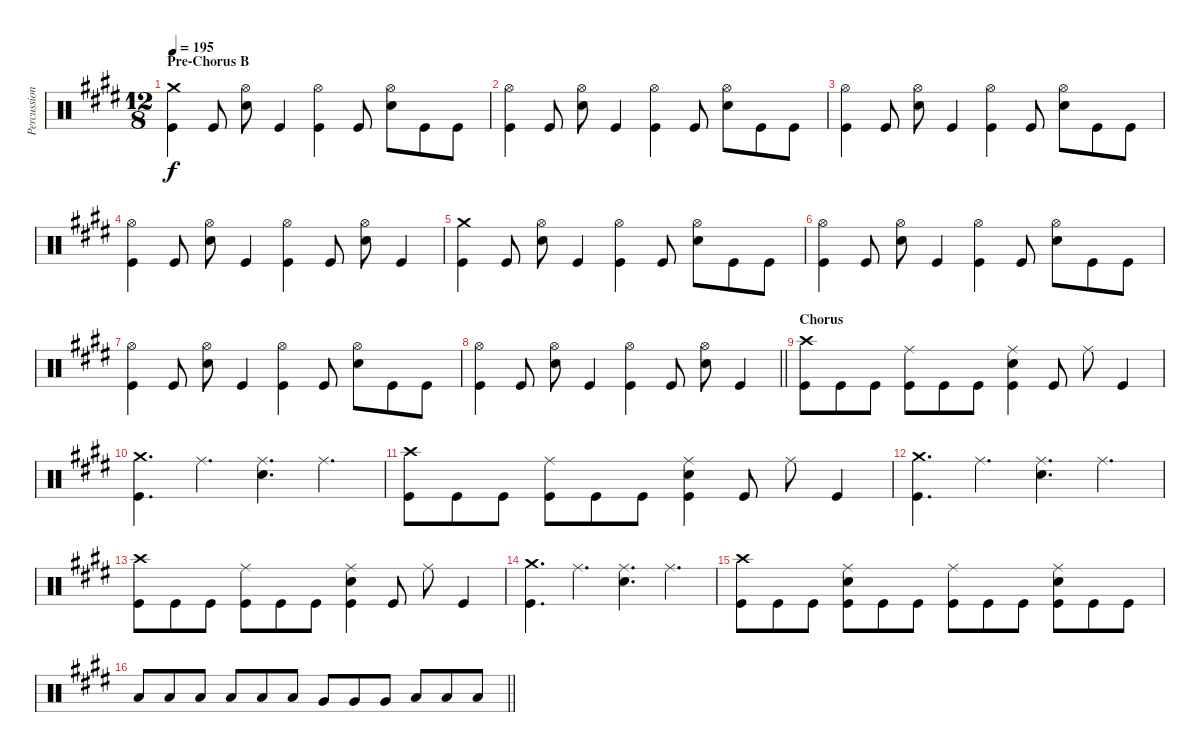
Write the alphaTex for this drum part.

\track ("Percussion" "Percussion") {instrument percussion}
\staff {score}
\articulation defaults
\ts (12 8)
\section ("" "Pre-Chorus B")
\tempo 195
\clef neutral
\ks e
("Crash medium (hit)" "Kick (hit)").4{dy f} "Kick (hit)".8 ("Hi-Hat (open)" "Electric Snare (hit)").8 "Kick (hit)".4 ("Hi-Hat (open)" "Kick (hit)").4 "Kick (hit)".8 ("Hi-Hat (open)" "Electric Snare (hit)").8 "Kick (hit)".8 "Kick (hit)".8 |
("Hi-Hat (open)" "Kick (hit)").4 "Kick (hit)".8 ("Hi-Hat (open)" "Electric Snare (hit)").8 "Kick (hit)".4 ("Hi-Hat (open)" "Kick (hit)").4 "Kick (hit)".8 ("Hi-Hat (open)" "Electric Snare (hit)").8 "Kick (hit)".8 "Kick (hit)".8 |
("Hi-Hat (open)" "Kick (hit)").4 "Kick (hit)".8 ("Hi-Hat (open)" "Electric Snare (hit)").8 "Kick (hit)".4 ("Hi-Hat (open)" "Kick (hit)").4 "Kick (hit)".8 ("Hi-Hat (open)" "Electric Snare (hit)").8 "Kick (hit)".8 "Kick (hit)".8 |
("Hi-Hat (open)" "Kick (hit)").4 "Kick (hit)".8 ("Hi-Hat (open)" "Electric Snare (hit)").8 "Kick (hit)".4 ("Hi-Hat (open)" "Kick (hit)").4 "Kick (hit)".8 ("Hi-Hat (open)" "Electric Snare (hit)").8 "Kick (hit)".4 |
("Crash medium (hit)" "Kick (hit)").4 "Kick (hit)".8 ("Hi-Hat (open)" "Electric Snare (hit)").8 "Kick (hit)".4 ("Hi-Hat (open)" "Kick (hit)").4 "Kick (hit)".8 ("Hi-Hat (open)" "Electric Snare (hit)").8 "Kick (hit)".8 "Kick (hit)".8 |
("Hi-Hat (open)" "Kick (hit)").4 "Kick (hit)".8 ("Hi-Hat (open)" "Electric Snare (hit)").8 "Kick (hit)".4 ("Hi-Hat (open)" "Kick (hit)").4 "Kick (hit)".8 ("Hi-Hat (open)" "Electric Snare (hit)").8 "Kick (hit)".8 "Kick (hit)".8 |
("Hi-Hat (open)" "Kick (hit)").4 "Kick (hit)".8 ("Hi-Hat (open)" "Electric Snare (hit)").8 "Kick (hit)".4 ("Hi-Hat (open)" "Kick (hit)").4 "Kick (hit)".8 ("Hi-Hat (open)" "Electric Snare (hit)").8 "Kick (hit)".8 "Kick (hit)".8 |
\barLineRight lightlight
("Hi-Hat (open)" "Kick (hit)").4 "Kick (hit)".8 ("Hi-Hat (open)" "Electric Snare (hit)").8 "Kick (hit)".4 ("Hi-Hat (open)" "Kick (hit)").4 "Kick (hit)".8 ("Hi-Hat (open)" "Electric Snare (hit)").8 "Kick (hit)".4 |
\section ("" "Chorus")
("Crash high (hit)" "Kick (hit)").8 "Kick (hit)".8 "Kick (hit)".8 ("Ride (middle)" "Kick (hit)").8 "Kick (hit)".8 "Kick (hit)".8 ("Ride (middle)" "Electric Snare (hit)" "Kick (hit)").4 "Kick (hit)".8 "Ride (middle)".8 "Kick (hit)".4 |
("Crash medium (hit)" "Kick (hit)").4{d} "Ride (middle)".4{d} ("Ride (middle)" "Electric Snare (hit)").4{d} "Ride (middle)".4{d} |
("Crash high (hit)" "Kick (hit)").8 "Kick (hit)".8 "Kick (hit)".8 ("Ride (middle)" "Kick (hit)").8 "Kick (hit)".8 "Kick (hit)".8 ("Ride (middle)" "Electric Snare (hit)" "Kick (hit)").4 "Kick (hit)".8 "Ride (middle)".8 "Kick (hit)".4 |
("Crash medium (hit)" "Kick (hit)").4{d} "Ride (middle)".4{d} ("Ride (middle)" "Electric Snare (hit)").4{d} "Ride (middle)".4{d} |
("Crash high (hit)" "Kick (hit)").8 "Kick (hit)".8 "Kick (hit)".8 ("Ride (middle)" "Kick (hit)").8 "Kick (hit)".8 "Kick (hit)".8 ("Ride (middle)" "Electric Snare (hit)" "Kick (hit)").4 "Kick (hit)".8 "Ride (middle)".8 "Kick (hit)".4 |
("Crash medium (hit)" "Kick (hit)").4{d} "Ride (middle)".4{d} ("Ride (middle)" "Electric Snare (hit)").4{d} "Ride (middle)".4{d} |
("Crash high (hit)" "Kick (hit)").8 "Kick (hit)".8 "Kick (hit)".8 ("Ride (middle)" "Electric Snare (hit)" "Kick (hit)").8 "Kick (hit)".8 "Kick (hit)".8 ("Ride (middle)" "Kick (hit)").8 "Kick (hit)".8 "Kick (hit)".8 ("Ride (middle)" "Electric Snare (hit)" "Kick (hit)").8 "Kick (hit)".8 "Kick (hit)".8 |
\barLineRight lightlight "Low Tom (hit)".8 "Low Tom (hit)".8 "Low Tom (hit)".8 "Low Tom (hit)".8 "Low Tom (hit)".8 "Low Tom (hit)".8 "Very Low Tom (hit)".8 "Very Low Tom (hit)".8 "Very Low Tom (hit)".8 "Low Floor Tom (hit)".8 "Low Floor Tom (hit)".8 "Low Floor Tom (hit)".8
